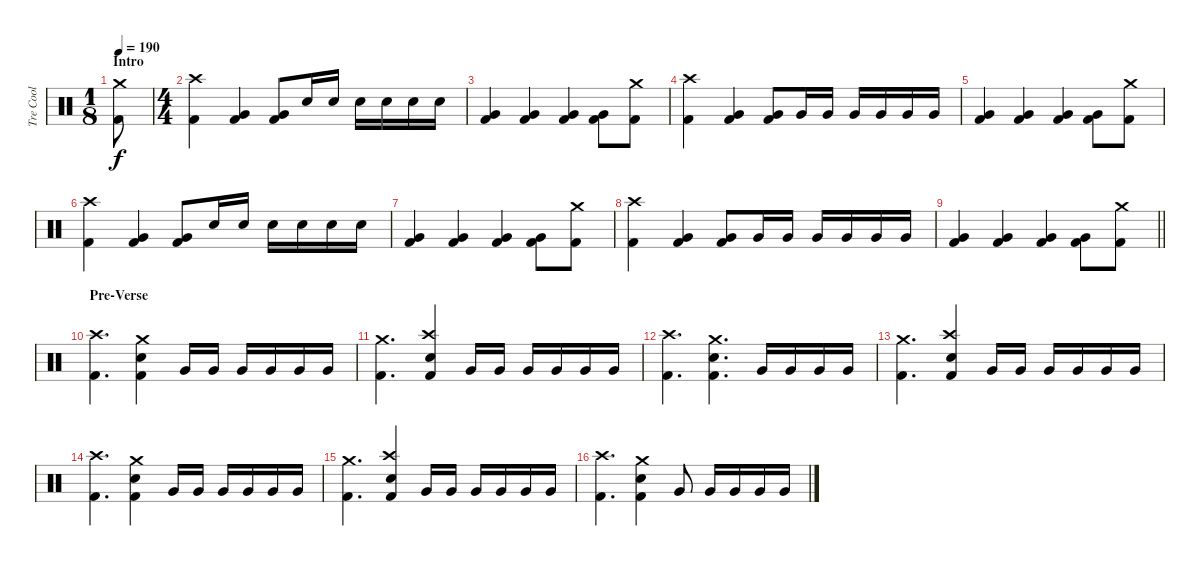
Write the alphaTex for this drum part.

\track ("Tre Cool" "Tre Cool") {instrument percussion}
\staff {score}
\articulation defaults
\ts (1 8)
\section ("" "Intro")
\tempo 190
\clef neutral
\ks c
("Crash medium (hit)" "Kick (hit) 2").8{dy f} |
\ts (4 4)
("Crash high (hit)" "Kick (hit) 2").4 ("Very Low Tom (hit)" "Kick (hit) 2").4 ("Very Low Tom (hit)" "Kick (hit) 2").8 "Snare (hit) 2".16 "Snare (hit) 2".16 "Snare (hit) 2".16 "Snare (hit) 2".16 "Snare (hit) 2".16 "Snare (hit) 2".16 |
("Very Low Tom (hit)" "Kick (hit) 2").4 ("Very Low Tom (hit)" "Kick (hit) 2").4 ("Very Low Tom (hit)" "Kick (hit) 2").4 ("Very Low Tom (hit)" "Kick (hit) 2").8 ("Crash medium (hit)" "Kick (hit) 2").8 |
("Crash high (hit)" "Kick (hit) 2").4 ("Very Low Tom (hit)" "Kick (hit) 2").4 ("Very Low Tom (hit)" "Kick (hit) 2").8 "Very Low Tom (hit)".16 "Very Low Tom (hit)".16 "Very Low Tom (hit)".16 "Very Low Tom (hit)".16 "Very Low Tom (hit)".16 "Very Low Tom (hit)".16 |
("Very Low Tom (hit)" "Kick (hit) 2").4 ("Very Low Tom (hit)" "Kick (hit) 2").4 ("Very Low Tom (hit)" "Kick (hit) 2").4 ("Very Low Tom (hit)" "Kick (hit) 2").8 ("Crash medium (hit)" "Kick (hit) 2").8 |
("Crash high (hit)" "Kick (hit) 2").4 ("Very Low Tom (hit)" "Kick (hit) 2").4 ("Very Low Tom (hit)" "Kick (hit) 2").8 "Snare (hit) 2".16 "Snare (hit) 2".16 "Snare (hit) 2".16 "Snare (hit) 2".16 "Snare (hit) 2".16 "Snare (hit) 2".16 |
("Very Low Tom (hit)" "Kick (hit) 2").4 ("Very Low Tom (hit)" "Kick (hit) 2").4 ("Very Low Tom (hit)" "Kick (hit) 2").4 ("Very Low Tom (hit)" "Kick (hit) 2").8 ("Crash medium (hit)" "Kick (hit) 2").8 |
("Crash high (hit)" "Kick (hit) 2").4 ("Very Low Tom (hit)" "Kick (hit) 2").4 ("Very Low Tom (hit)" "Kick (hit) 2").8 "Very Low Tom (hit)".16 "Very Low Tom (hit)".16 "Very Low Tom (hit)".16 "Very Low Tom (hit)".16 "Very Low Tom (hit)".16 "Very Low Tom (hit)".16 |
\barLineRight lightlight
("Very Low Tom (hit)" "Kick (hit) 2").4 ("Very Low Tom (hit)" "Kick (hit) 2").4 ("Very Low Tom (hit)" "Kick (hit) 2").4 ("Very Low Tom (hit)" "Kick (hit) 2").8 ("Crash medium (hit)" "Kick (hit) 2").8 |
\section ("" "Pre-Verse")
("Crash high (hit)" "Kick (hit) 2").4{d} ("Crash medium (hit)" "Snare (hit) 2" "Kick (hit) 2").4 "Very Low Tom (hit)".16 "Very Low Tom (hit)".16 "Very Low Tom (hit)".16 "Very Low Tom (hit)".16 "Very Low Tom (hit)".16 "Very Low Tom (hit)".16 |
("Crash medium (hit)" "Kick (hit) 2").4{d} ("Crash high (hit)" "Snare (hit) 2" "Kick (hit) 2").4 "Very Low Tom (hit)".16 "Very Low Tom (hit)".16 "Very Low Tom (hit)".16 "Very Low Tom (hit)".16 "Very Low Tom (hit)".16 "Very Low Tom (hit)".16 |
("Crash high (hit)" "Kick (hit) 2").4{d} ("Crash medium (hit)" "Snare (hit) 2" "Kick (hit) 2").4{d} "Very Low Tom (hit)".16 "Very Low Tom (hit)".16 "Very Low Tom (hit)".16 "Very Low Tom (hit)".16 |
("Crash medium (hit)" "Kick (hit) 2").4{d} ("Crash high (hit)" "Snare (hit) 2" "Kick (hit) 2").4 "Very Low Tom (hit)".16 "Very Low Tom (hit)".16 "Very Low Tom (hit)".16 "Very Low Tom (hit)".16 "Very Low Tom (hit)".16 "Very Low Tom (hit)".16 |
("Crash high (hit)" "Kick (hit) 2").4{d} ("Crash medium (hit)" "Snare (hit) 2" "Kick (hit) 2").4 "Very Low Tom (hit)".16 "Very Low Tom (hit)".16 "Very Low Tom (hit)".16 "Very Low Tom (hit)".16 "Very Low Tom (hit)".16 "Very Low Tom (hit)".16 |
("Crash medium (hit)" "Kick (hit) 2").4{d} ("Crash high (hit)" "Snare (hit) 2" "Kick (hit) 2").4 "Very Low Tom (hit)".16 "Very Low Tom (hit)".16 "Very Low Tom (hit)".16 "Very Low Tom (hit)".16 "Very Low Tom (hit)".16 "Very Low Tom (hit)".16 |
("Crash high (hit)" "Kick (hit) 2").4{d} ("Crash medium (hit)" "Snare (hit) 2" "Kick (hit) 2").4 "Very Low Tom (hit)".8 "Very Low Tom (hit)".16 "Very Low Tom (hit)".16 "Very Low Tom (hit)".16 "Very Low Tom (hit)".16
